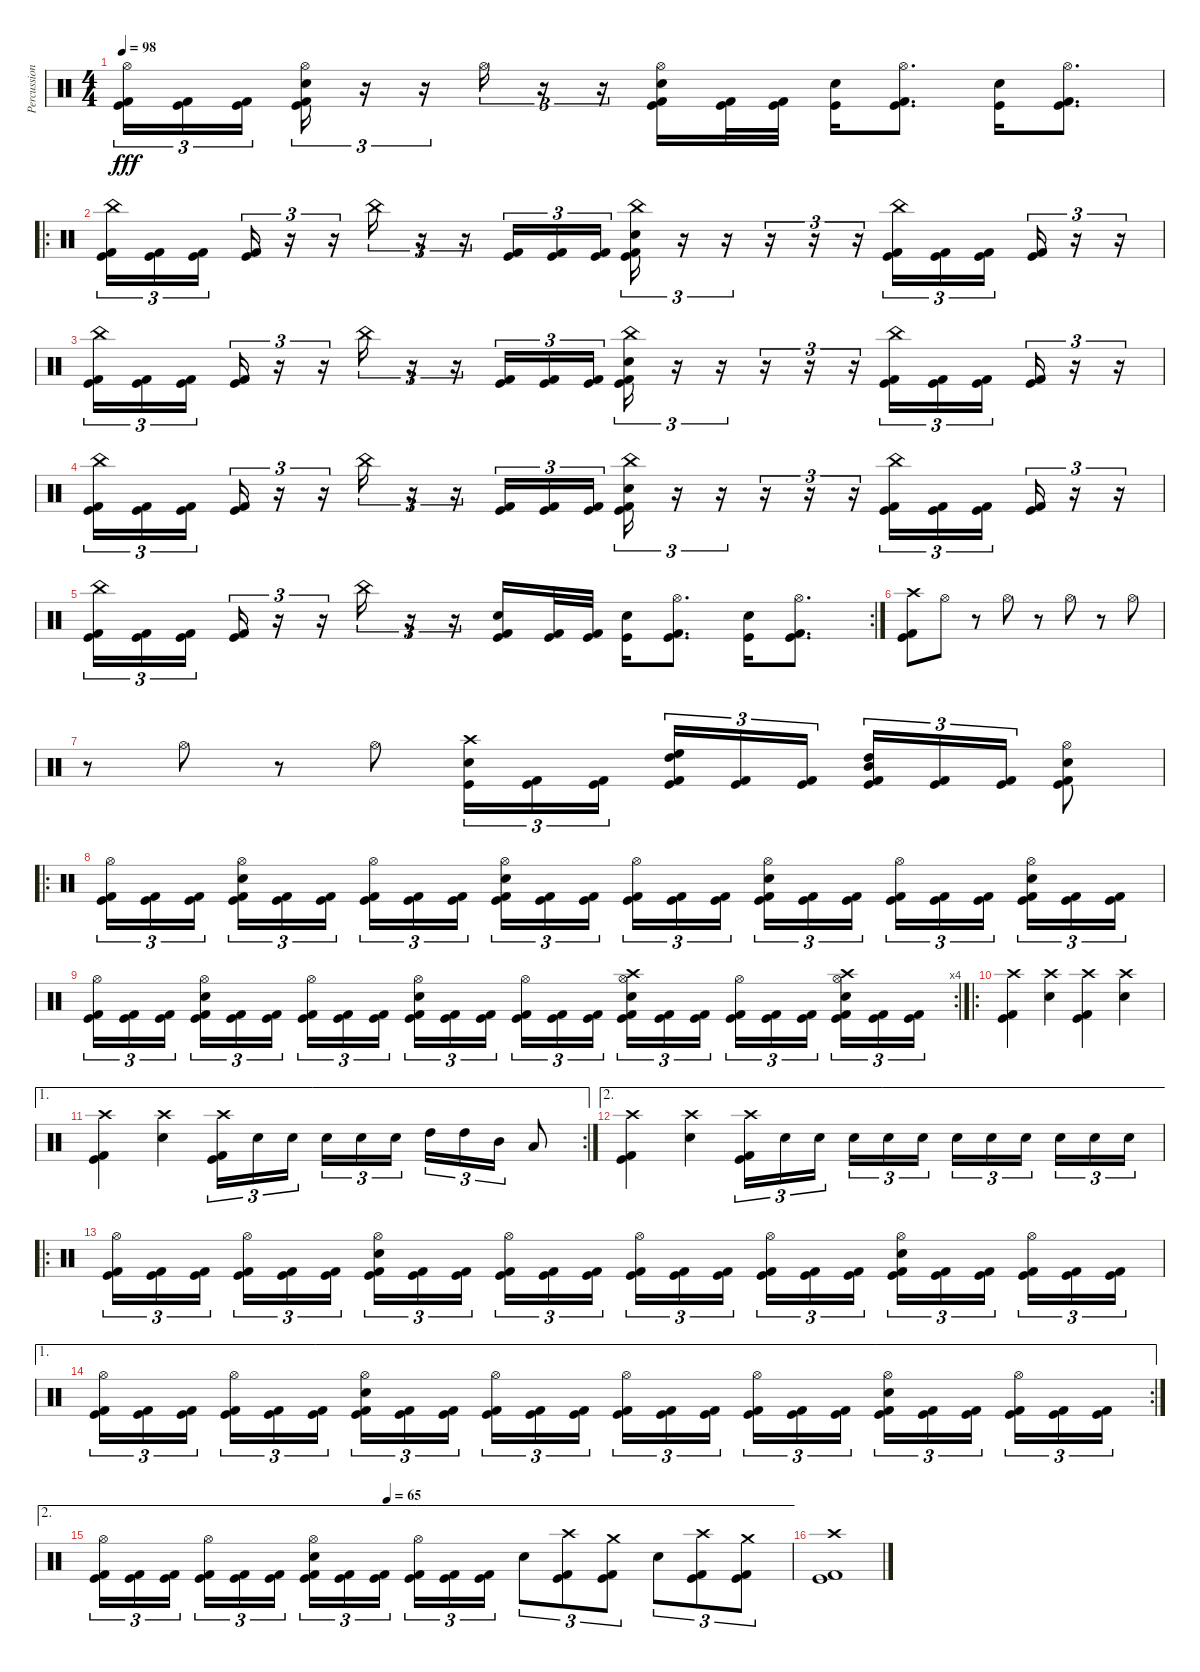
\track ("Percussion" "Percussion") {instrument percussion}
\staff {score}
\articulation defaults
\ts (4 4)
\tempo 98
\clef neutral
\ks c
("Hi-Hat (open)" "Kick (hit) 2" "Kick (hit)").16{tu (3 2) dy fff} ("Kick (hit) 2" "Kick (hit)").16{tu (3 2)} ("Kick (hit) 2" "Kick (hit)").16{tu (3 2) beam splitsecondary} ("Hi-Hat (open)" "Electric Snare (hit)" "Kick (hit) 2" "Kick (hit)").16{tu (3 2)} r.16{tu (3 2)} r.16{tu (3 2)} "Hi-Hat (open)".16{tu (3 2)} r.16{tu (3 2)} r.16{tu (3 2)} ("Hi-Hat (open)" "Electric Snare (hit)" "Kick (hit) 2" "Kick (hit)").16 ("Kick (hit) 2" "Kick (hit)").32 ("Kick (hit) 2" "Kick (hit)").32 ("Electric Snare (hit)" "Kick (hit)").16 ("Hi-Hat (open)" "Kick (hit) 2" "Kick (hit)").8{d} ("Electric Snare (hit)" "Kick (hit)").16 ("Hi-Hat (open)" "Kick (hit)" "Kick (hit) 2").8{d} |
\ro
("China (hit)" "Kick (hit) 2" "Kick (hit)").16{tu (3 2)} ("Kick (hit) 2" "Kick (hit)").16{tu (3 2)} ("Kick (hit) 2" "Kick (hit)").16{tu (3 2) beam splitsecondary} ("Kick (hit) 2" "Kick (hit)").16{tu (3 2)} r.16{tu (3 2)} r.16{tu (3 2)} "China (hit)".16{tu (3 2)} r.16{tu (3 2)} r.16{tu (3 2)} ("Kick (hit) 2" "Kick (hit)").16{tu (3 2)} ("Kick (hit) 2" "Kick (hit)").16{tu (3 2)} ("Kick (hit) 2" "Kick (hit)").16{tu (3 2)} ("Electric Snare (hit)" "China (hit)" "Kick (hit) 2" "Kick (hit)").16{tu (3 2)} r.16{tu (3 2)} r.16{tu (3 2)} r.16{tu (3 2)} r.16{tu (3 2)} r.16{tu (3 2)} ("China (hit)" "Kick (hit) 2" "Kick (hit)").16{tu (3 2)} ("Kick (hit) 2" "Kick (hit)").16{tu (3 2)} ("Kick (hit) 2" "Kick (hit)").16{tu (3 2) beam splitsecondary} ("Kick (hit) 2" "Kick (hit)").16{tu (3 2)} r.16{tu (3 2)} r.16{tu (3 2)} |
("China (hit)" "Kick (hit) 2" "Kick (hit)").16{tu (3 2)} ("Kick (hit) 2" "Kick (hit)").16{tu (3 2)} ("Kick (hit) 2" "Kick (hit)").16{tu (3 2) beam splitsecondary} ("Kick (hit) 2" "Kick (hit)").16{tu (3 2)} r.16{tu (3 2)} r.16{tu (3 2)} "China (hit)".16{tu (3 2)} r.16{tu (3 2)} r.16{tu (3 2)} ("Kick (hit) 2" "Kick (hit)").16{tu (3 2)} ("Kick (hit) 2" "Kick (hit)").16{tu (3 2)} ("Kick (hit) 2" "Kick (hit)").16{tu (3 2)} ("Electric Snare (hit)" "China (hit)" "Kick (hit) 2" "Kick (hit)").16{tu (3 2)} r.16{tu (3 2)} r.16{tu (3 2)} r.16{tu (3 2)} r.16{tu (3 2)} r.16{tu (3 2)} ("China (hit)" "Kick (hit) 2" "Kick (hit)").16{tu (3 2)} ("Kick (hit) 2" "Kick (hit)").16{tu (3 2)} ("Kick (hit) 2" "Kick (hit)").16{tu (3 2) beam splitsecondary} ("Kick (hit) 2" "Kick (hit)").16{tu (3 2)} r.16{tu (3 2)} r.16{tu (3 2)} |
("China (hit)" "Kick (hit) 2" "Kick (hit)").16{tu (3 2)} ("Kick (hit) 2" "Kick (hit)").16{tu (3 2)} ("Kick (hit) 2" "Kick (hit)").16{tu (3 2) beam splitsecondary} ("Kick (hit) 2" "Kick (hit)").16{tu (3 2)} r.16{tu (3 2)} r.16{tu (3 2)} "China (hit)".16{tu (3 2)} r.16{tu (3 2)} r.16{tu (3 2)} ("Kick (hit) 2" "Kick (hit)").16{tu (3 2)} ("Kick (hit) 2" "Kick (hit)").16{tu (3 2)} ("Kick (hit) 2" "Kick (hit)").16{tu (3 2)} ("Electric Snare (hit)" "China (hit)" "Kick (hit) 2" "Kick (hit)").16{tu (3 2)} r.16{tu (3 2)} r.16{tu (3 2)} r.16{tu (3 2)} r.16{tu (3 2)} r.16{tu (3 2)} ("China (hit)" "Kick (hit) 2" "Kick (hit)").16{tu (3 2)} ("Kick (hit) 2" "Kick (hit)").16{tu (3 2)} ("Kick (hit) 2" "Kick (hit)").16{tu (3 2) beam splitsecondary} ("Kick (hit) 2" "Kick (hit)").16{tu (3 2)} r.16{tu (3 2)} r.16{tu (3 2)} |
\rc 2
("China (hit)" "Kick (hit) 2" "Kick (hit)").16{tu (3 2)} ("Kick (hit) 2" "Kick (hit)").16{tu (3 2)} ("Kick (hit) 2" "Kick (hit)").16{tu (3 2) beam splitsecondary} ("Kick (hit) 2" "Kick (hit)").16{tu (3 2)} r.16{tu (3 2)} r.16{tu (3 2)} "China (hit)".16{tu (3 2)} r.16{tu (3 2)} r.16{tu (3 2)} ("Electric Snare (hit)" "Kick (hit) 2" "Kick (hit)").16 ("Kick (hit) 2" "Kick (hit)").32 ("Kick (hit) 2" "Kick (hit)").32 ("Electric Snare (hit)" "Kick (hit)").16 ("Hi-Hat (open)" "Kick (hit) 2" "Kick (hit)").8{d} ("Electric Snare (hit)" "Kick (hit)").16 ("Hi-Hat (open)" "Kick (hit)" "Kick (hit) 2").8{d} |
("Crash high (hit)" "Kick (hit) 2" "Kick (hit)").8 "Hi-Hat (open)".8 r.8 "Hi-Hat (open)".8 r.8 "Hi-Hat (open)".8 r.8 "Hi-Hat (open)".8 |
r.8 "Hi-Hat (open)".8 r.8 "Hi-Hat (open)".8 ("Electric Snare (hit)" "Kick (hit)" "Crash high (hit)").16{tu (3 2)} ("Kick (hit)" "Kick (hit) 2").16{tu (3 2)} ("Kick (hit)" "Kick (hit) 2").16{tu (3 2) beam splitsecondary} ("High Tom (hit)" "High Floor Tom (hit)" "Kick (hit)" "Kick (hit) 2").16{tu (3 2)} ("Kick (hit)" "Kick (hit) 2").16{tu (3 2)} ("Kick (hit)" "Kick (hit) 2").16{tu (3 2)} ("Mid Tom (hit)" "High Tom (hit)" "Kick (hit)" "Kick (hit) 2").16{tu (3 2)} ("Kick (hit)" "Kick (hit) 2").16{tu (3 2)} ("Kick (hit)" "Kick (hit) 2").16{tu (3 2)} ("Hi-Hat (open)" "Electric Snare (hit)" "Kick (hit)" "Kick (hit) 2").8 |
\ro
("Hi-Hat (open)" "Kick (hit) 2" "Kick (hit)").16{tu (3 2)} ("Kick (hit) 2" "Kick (hit)").16{tu (3 2)} ("Kick (hit) 2" "Kick (hit)").16{tu (3 2) beam splitsecondary} ("Electric Snare (hit)" "Hi-Hat (open)" "Kick (hit) 2" "Kick (hit)").16{tu (3 2)} ("Kick (hit) 2" "Kick (hit)").16{tu (3 2)} ("Kick (hit) 2" "Kick (hit)").16{tu (3 2)} ("Hi-Hat (open)" "Kick (hit) 2" "Kick (hit)").16{tu (3 2)} ("Kick (hit) 2" "Kick (hit)").16{tu (3 2)} ("Kick (hit) 2" "Kick (hit)").16{tu (3 2) beam splitsecondary} ("Electric Snare (hit)" "Hi-Hat (open)" "Kick (hit) 2" "Kick (hit)").16{tu (3 2)} ("Kick (hit) 2" "Kick (hit)").16{tu (3 2)} ("Kick (hit) 2" "Kick (hit)").16{tu (3 2)} ("Hi-Hat (open)" "Kick (hit) 2" "Kick (hit)").16{tu (3 2)} ("Kick (hit) 2" "Kick (hit)").16{tu (3 2)} ("Kick (hit) 2" "Kick (hit)").16{tu (3 2) beam splitsecondary} ("Electric Snare (hit)" "Hi-Hat (open)" "Kick (hit) 2" "Kick (hit)").16{tu (3 2)} ("Kick (hit) 2" "Kick (hit)").16{tu (3 2)} ("Kick (hit) 2" "Kick (hit)").16{tu (3 2)} ("Hi-Hat (open)" "Kick (hit) 2" "Kick (hit)").16{tu (3 2)} ("Kick (hit) 2" "Kick (hit)").16{tu (3 2)} ("Kick (hit) 2" "Kick (hit)").16{tu (3 2) beam splitsecondary} ("Electric Snare (hit)" "Hi-Hat (open)" "Kick (hit) 2" "Kick (hit)").16{tu (3 2)} ("Kick (hit) 2" "Kick (hit)").16{tu (3 2)} ("Kick (hit) 2" "Kick (hit)").16{tu (3 2)} |
\rc 4
("Hi-Hat (open)" "Kick (hit) 2" "Kick (hit)").16{tu (3 2)} ("Kick (hit) 2" "Kick (hit)").16{tu (3 2)} ("Kick (hit) 2" "Kick (hit)").16{tu (3 2) beam splitsecondary} ("Electric Snare (hit)" "Hi-Hat (open)" "Kick (hit) 2" "Kick (hit)").16{tu (3 2)} ("Kick (hit) 2" "Kick (hit)").16{tu (3 2)} ("Kick (hit) 2" "Kick (hit)").16{tu (3 2)} ("Hi-Hat (open)" "Kick (hit) 2" "Kick (hit)").16{tu (3 2)} ("Kick (hit) 2" "Kick (hit)").16{tu (3 2)} ("Kick (hit) 2" "Kick (hit)").16{tu (3 2) beam splitsecondary} ("Electric Snare (hit)" "Hi-Hat (open)" "Kick (hit) 2" "Kick (hit)").16{tu (3 2)} ("Kick (hit) 2" "Kick (hit)").16{tu (3 2)} ("Kick (hit) 2" "Kick (hit)").16{tu (3 2)} ("Hi-Hat (open)" "Kick (hit) 2" "Kick (hit)").16{tu (3 2)} ("Kick (hit) 2" "Kick (hit)").16{tu (3 2)} ("Kick (hit) 2" "Kick (hit)").16{tu (3 2) beam splitsecondary} ("Crash high (hit)" "Electric Snare (hit)" "Hi-Hat (open)" "Kick (hit) 2" "Kick (hit)").16{tu (3 2)} ("Kick (hit) 2" "Kick (hit)").16{tu (3 2)} ("Kick (hit) 2" "Kick (hit)").16{tu (3 2)} ("Hi-Hat (open)" "Kick (hit) 2" "Kick (hit)").16{tu (3 2)} ("Kick (hit) 2" "Kick (hit)").16{tu (3 2)} ("Kick (hit) 2" "Kick (hit)").16{tu (3 2) beam splitsecondary} ("Crash high (hit)" "Electric Snare (hit)" "Hi-Hat (open)" "Kick (hit) 2" "Kick (hit)").16{tu (3 2)} ("Kick (hit) 2" "Kick (hit)").16{tu (3 2)} ("Kick (hit) 2" "Kick (hit)").16{tu (3 2)} |
\ro
("Crash high (hit)" "Kick (hit) 2" "Kick (hit)").4 ("Electric Snare (hit)" "Crash high (hit)").4 ("Crash high (hit)" "Kick (hit) 2" "Kick (hit)").4 ("Electric Snare (hit)" "Crash high (hit)").4 |
\ae 1
\rc 2
("Crash high (hit)" "Kick (hit)" "Kick (hit) 2").4 ("Electric Snare (hit)" "Crash high (hit)").4 ("Crash high (hit)" "Kick (hit) 2" "Kick (hit)").16{tu (3 2)} "Electric Snare (hit)".16{tu (3 2)} "Electric Snare (hit)".16{tu (3 2) beam splitsecondary} "Electric Snare (hit)".16{tu (3 2)} "Electric Snare (hit)".16{tu (3 2)} "Electric Snare (hit)".16{tu (3 2)} "High Tom (hit)".16{tu (3 2)} "High Tom (hit)".16{tu (3 2)} "Mid Tom (hit)".16{tu (3 2)} "Low Tom (hit)".8 |
\ae 2
("Crash high (hit)" "Kick (hit)" "Kick (hit) 2").4 ("Electric Snare (hit)" "Crash high (hit)").4 ("Crash high (hit)" "Kick (hit) 2" "Kick (hit)").16{tu (3 2)} "Electric Snare (hit)".16{tu (3 2)} "Electric Snare (hit)".16{tu (3 2) beam splitsecondary} "Electric Snare (hit)".16{tu (3 2)} "Electric Snare (hit)".16{tu (3 2)} "Electric Snare (hit)".16{tu (3 2)} "Electric Snare (hit)".16{tu (3 2)} "Electric Snare (hit)".16{tu (3 2)} "Electric Snare (hit)".16{tu (3 2) beam splitsecondary} "Electric Snare (hit)".16{tu (3 2)} "Electric Snare (hit)".16{tu (3 2)} "Electric Snare (hit)".16{tu (3 2)} |
\ro
("Hi-Hat (open)" "Kick (hit) 2" "Kick (hit)").16{tu (3 2)} ("Kick (hit) 2" "Kick (hit)").16{tu (3 2)} ("Kick (hit) 2" "Kick (hit)").16{tu (3 2) beam splitsecondary} ("Hi-Hat (open)" "Kick (hit) 2" "Kick (hit)").16{tu (3 2)} ("Kick (hit) 2" "Kick (hit)").16{tu (3 2)} ("Kick (hit) 2" "Kick (hit)").16{tu (3 2)} ("Electric Snare (hit)" "Hi-Hat (open)" "Kick (hit) 2" "Kick (hit)").16{tu (3 2)} ("Kick (hit) 2" "Kick (hit)").16{tu (3 2)} ("Kick (hit) 2" "Kick (hit)").16{tu (3 2) beam splitsecondary} ("Hi-Hat (open)" "Kick (hit) 2" "Kick (hit)").16{tu (3 2)} ("Kick (hit) 2" "Kick (hit)").16{tu (3 2)} ("Kick (hit) 2" "Kick (hit)").16{tu (3 2)} ("Hi-Hat (open)" "Kick (hit) 2" "Kick (hit)").16{tu (3 2)} ("Kick (hit) 2" "Kick (hit)").16{tu (3 2)} ("Kick (hit) 2" "Kick (hit)").16{tu (3 2) beam splitsecondary} ("Hi-Hat (open)" "Kick (hit) 2" "Kick (hit)").16{tu (3 2)} ("Kick (hit) 2" "Kick (hit)").16{tu (3 2)} ("Kick (hit) 2" "Kick (hit)").16{tu (3 2)} ("Electric Snare (hit)" "Hi-Hat (open)" "Kick (hit) 2" "Kick (hit)").16{tu (3 2)} ("Kick (hit) 2" "Kick (hit)").16{tu (3 2)} ("Kick (hit) 2" "Kick (hit)").16{tu (3 2) beam splitsecondary} ("Hi-Hat (open)" "Kick (hit) 2" "Kick (hit)").16{tu (3 2)} ("Kick (hit) 2" "Kick (hit)").16{tu (3 2)} ("Kick (hit) 2" "Kick (hit)").16{tu (3 2)} |
\ae 1
\rc 2
("Hi-Hat (open)" "Kick (hit) 2" "Kick (hit)").16{tu (3 2)} ("Kick (hit) 2" "Kick (hit)").16{tu (3 2)} ("Kick (hit) 2" "Kick (hit)").16{tu (3 2) beam splitsecondary} ("Hi-Hat (open)" "Kick (hit) 2" "Kick (hit)").16{tu (3 2)} ("Kick (hit) 2" "Kick (hit)").16{tu (3 2)} ("Kick (hit) 2" "Kick (hit)").16{tu (3 2)} ("Electric Snare (hit)" "Hi-Hat (open)" "Kick (hit) 2" "Kick (hit)").16{tu (3 2)} ("Kick (hit) 2" "Kick (hit)").16{tu (3 2)} ("Kick (hit) 2" "Kick (hit)").16{tu (3 2) beam splitsecondary} ("Hi-Hat (open)" "Kick (hit) 2" "Kick (hit)").16{tu (3 2)} ("Kick (hit) 2" "Kick (hit)").16{tu (3 2)} ("Kick (hit) 2" "Kick (hit)").16{tu (3 2)} ("Hi-Hat (open)" "Kick (hit) 2" "Kick (hit)").16{tu (3 2)} ("Kick (hit) 2" "Kick (hit)").16{tu (3 2)} ("Kick (hit) 2" "Kick (hit)").16{tu (3 2) beam splitsecondary} ("Hi-Hat (open)" "Kick (hit) 2" "Kick (hit)").16{tu (3 2)} ("Kick (hit) 2" "Kick (hit)").16{tu (3 2)} ("Kick (hit) 2" "Kick (hit)").16{tu (3 2)} ("Electric Snare (hit)" "Hi-Hat (open)" "Kick (hit) 2" "Kick (hit)").16{tu (3 2)} ("Kick (hit) 2" "Kick (hit)").16{tu (3 2)} ("Kick (hit) 2" "Kick (hit)").16{tu (3 2) beam splitsecondary} ("Hi-Hat (open)" "Kick (hit) 2" "Kick (hit)").16{tu (3 2)} ("Kick (hit) 2" "Kick (hit)").16{tu (3 2)} ("Kick (hit) 2" "Kick (hit)").16{tu (3 2)} |
\ae 2
\tempo (65 0.4166666666666667)
("Hi-Hat (open)" "Kick (hit) 2" "Kick (hit)").16{tu (3 2)} ("Kick (hit) 2" "Kick (hit)").16{tu (3 2)} ("Kick (hit) 2" "Kick (hit)").16{tu (3 2) beam splitsecondary} ("Hi-Hat (open)" "Kick (hit) 2" "Kick (hit)").16{tu (3 2)} ("Kick (hit) 2" "Kick (hit)").16{tu (3 2)} ("Kick (hit) 2" "Kick (hit)").16{tu (3 2)} ("Electric Snare (hit)" "Hi-Hat (open)" "Kick (hit) 2" "Kick (hit)").16{tu (3 2)} ("Kick (hit) 2" "Kick (hit)").16{tu (3 2)} ("Kick (hit) 2" "Kick (hit)").16{tu (3 2) beam splitsecondary} ("Hi-Hat (open)" "Kick (hit) 2" "Kick (hit)").16{tu (3 2)} ("Kick (hit) 2" "Kick (hit)").16{tu (3 2)} ("Kick (hit) 2" "Kick (hit)").16{tu (3 2)} "Electric Snare (hit)".8{tu (3 2)} ("Crash high (hit)" "Kick (hit)" "Kick (hit) 2").8{tu (3 2)} ("Crash medium (hit)" "Kick (hit)" "Kick (hit) 2").8{tu (3 2)} "Electric Snare (hit)".8{tu (3 2)} ("Crash high (hit)" "Kick (hit)" "Kick (hit) 2").8{tu (3 2)} ("Crash medium (hit)" "Kick (hit)" "Kick (hit) 2").8{tu (3 2)} |
("Crash high (hit)" "Kick (hit)" "Kick (hit) 2").1
